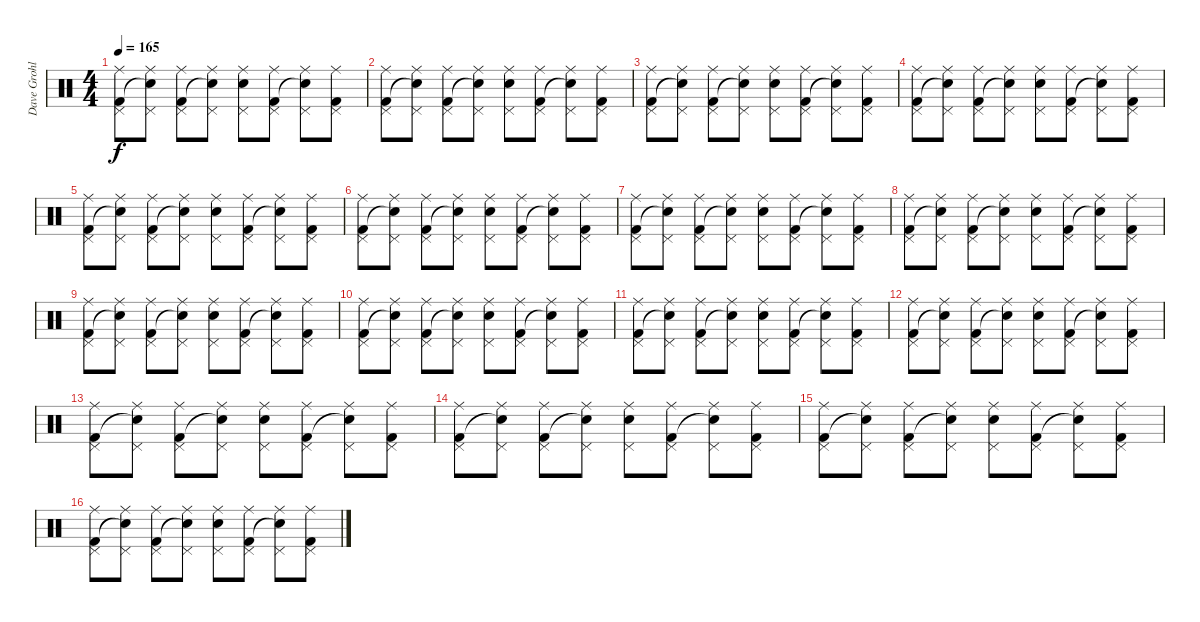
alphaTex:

\track ("Dave Grohl" "Dave Grohl") {instrument percussion}
\staff {score}
\articulation defaults
\ts (4 4)
\tempo 165
\clef neutral
\ks c
("Ride (middle)" "Pedal Hi-Hat (hit)" "Kick (hit) 2").8{dy f} ("Ride (middle)" "Pedal Hi-Hat (hit)" "Snare (hit)"{t}).8 ("Ride (middle)" "Pedal Hi-Hat (hit)" "Kick (hit) 2").8 ("Ride (middle)" "Pedal Hi-Hat (hit)" "Snare (hit)"{t}).8 ("Ride (middle)" "Pedal Hi-Hat (hit)" "Snare (hit) 2").8 ("Ride (middle)" "Pedal Hi-Hat (hit)" "Kick (hit) 2").8 ("Ride (middle)" "Pedal Hi-Hat (hit)" "Snare (hit)"{t}).8 ("Ride (middle)" "Pedal Hi-Hat (hit)" "Kick (hit) 2").8 |
("Ride (middle)" "Pedal Hi-Hat (hit)" "Kick (hit) 2").8 ("Ride (middle)" "Pedal Hi-Hat (hit)" "Snare (hit)"{t}).8 ("Ride (middle)" "Pedal Hi-Hat (hit)" "Kick (hit) 2").8 ("Ride (middle)" "Pedal Hi-Hat (hit)" "Snare (hit)"{t}).8 ("Ride (middle)" "Pedal Hi-Hat (hit)" "Snare (hit) 2").8 ("Ride (middle)" "Pedal Hi-Hat (hit)" "Kick (hit) 2").8 ("Ride (middle)" "Pedal Hi-Hat (hit)" "Snare (hit)"{t}).8 ("Ride (middle)" "Pedal Hi-Hat (hit)" "Kick (hit) 2").8 |
("Ride (middle)" "Pedal Hi-Hat (hit)" "Kick (hit) 2").8 ("Ride (middle)" "Pedal Hi-Hat (hit)" "Snare (hit)"{t}).8 ("Ride (middle)" "Pedal Hi-Hat (hit)" "Kick (hit) 2").8 ("Ride (middle)" "Pedal Hi-Hat (hit)" "Snare (hit)"{t}).8 ("Ride (middle)" "Pedal Hi-Hat (hit)" "Snare (hit) 2").8 ("Ride (middle)" "Pedal Hi-Hat (hit)" "Kick (hit) 2").8 ("Ride (middle)" "Pedal Hi-Hat (hit)" "Snare (hit)"{t}).8 ("Ride (middle)" "Pedal Hi-Hat (hit)" "Kick (hit) 2").8 |
("Ride (middle)" "Pedal Hi-Hat (hit)" "Kick (hit) 2").8 ("Ride (middle)" "Pedal Hi-Hat (hit)" "Snare (hit)"{t}).8 ("Ride (middle)" "Pedal Hi-Hat (hit)" "Kick (hit) 2").8 ("Ride (middle)" "Pedal Hi-Hat (hit)" "Snare (hit)"{t}).8 ("Ride (middle)" "Pedal Hi-Hat (hit)" "Snare (hit) 2").8 ("Ride (middle)" "Pedal Hi-Hat (hit)" "Kick (hit) 2").8 ("Ride (middle)" "Pedal Hi-Hat (hit)" "Snare (hit)"{t}).8 ("Ride (middle)" "Pedal Hi-Hat (hit)" "Kick (hit) 2").8 |
("Ride (middle)" "Pedal Hi-Hat (hit)" "Kick (hit) 2").8 ("Ride (middle)" "Pedal Hi-Hat (hit)" "Snare (hit)"{t}).8 ("Ride (middle)" "Pedal Hi-Hat (hit)" "Kick (hit) 2").8 ("Ride (middle)" "Pedal Hi-Hat (hit)" "Snare (hit)"{t}).8 ("Ride (middle)" "Pedal Hi-Hat (hit)" "Snare (hit) 2").8 ("Ride (middle)" "Pedal Hi-Hat (hit)" "Kick (hit) 2").8 ("Ride (middle)" "Pedal Hi-Hat (hit)" "Snare (hit)"{t}).8 ("Ride (middle)" "Pedal Hi-Hat (hit)" "Kick (hit) 2").8 |
("Ride (middle)" "Pedal Hi-Hat (hit)" "Kick (hit) 2").8 ("Ride (middle)" "Pedal Hi-Hat (hit)" "Snare (hit)"{t}).8 ("Ride (middle)" "Pedal Hi-Hat (hit)" "Kick (hit) 2").8 ("Ride (middle)" "Pedal Hi-Hat (hit)" "Snare (hit)"{t}).8 ("Ride (middle)" "Pedal Hi-Hat (hit)" "Snare (hit) 2").8 ("Ride (middle)" "Pedal Hi-Hat (hit)" "Kick (hit) 2").8 ("Ride (middle)" "Pedal Hi-Hat (hit)" "Snare (hit)"{t}).8 ("Ride (middle)" "Pedal Hi-Hat (hit)" "Kick (hit) 2").8 |
("Ride (middle)" "Pedal Hi-Hat (hit)" "Kick (hit) 2").8 ("Ride (middle)" "Pedal Hi-Hat (hit)" "Snare (hit)"{t}).8 ("Ride (middle)" "Pedal Hi-Hat (hit)" "Kick (hit) 2").8 ("Ride (middle)" "Pedal Hi-Hat (hit)" "Snare (hit)"{t}).8 ("Ride (middle)" "Pedal Hi-Hat (hit)" "Snare (hit) 2").8 ("Ride (middle)" "Pedal Hi-Hat (hit)" "Kick (hit) 2").8 ("Ride (middle)" "Pedal Hi-Hat (hit)" "Snare (hit)"{t}).8 ("Ride (middle)" "Pedal Hi-Hat (hit)" "Kick (hit) 2").8 |
("Ride (middle)" "Pedal Hi-Hat (hit)" "Kick (hit) 2").8 ("Ride (middle)" "Pedal Hi-Hat (hit)" "Snare (hit)"{t}).8 ("Ride (middle)" "Pedal Hi-Hat (hit)" "Kick (hit) 2").8 ("Ride (middle)" "Pedal Hi-Hat (hit)" "Snare (hit)"{t}).8 ("Ride (middle)" "Pedal Hi-Hat (hit)" "Snare (hit) 2").8 ("Ride (middle)" "Pedal Hi-Hat (hit)" "Kick (hit) 2").8 ("Ride (middle)" "Pedal Hi-Hat (hit)" "Snare (hit)"{t}).8 ("Ride (middle)" "Pedal Hi-Hat (hit)" "Kick (hit) 2").8 |
("Ride (middle)" "Pedal Hi-Hat (hit)" "Kick (hit) 2").8 ("Ride (middle)" "Pedal Hi-Hat (hit)" "Snare (hit)"{t}).8 ("Ride (middle)" "Pedal Hi-Hat (hit)" "Kick (hit) 2").8 ("Ride (middle)" "Pedal Hi-Hat (hit)" "Snare (hit)"{t}).8 ("Ride (middle)" "Pedal Hi-Hat (hit)" "Snare (hit) 2").8 ("Ride (middle)" "Pedal Hi-Hat (hit)" "Kick (hit) 2").8 ("Ride (middle)" "Pedal Hi-Hat (hit)" "Snare (hit)"{t}).8 ("Ride (middle)" "Pedal Hi-Hat (hit)" "Kick (hit) 2").8 |
("Ride (middle)" "Pedal Hi-Hat (hit)" "Kick (hit) 2").8 ("Ride (middle)" "Pedal Hi-Hat (hit)" "Snare (hit)"{t}).8 ("Ride (middle)" "Pedal Hi-Hat (hit)" "Kick (hit) 2").8 ("Ride (middle)" "Pedal Hi-Hat (hit)" "Snare (hit)"{t}).8 ("Ride (middle)" "Pedal Hi-Hat (hit)" "Snare (hit) 2").8 ("Ride (middle)" "Pedal Hi-Hat (hit)" "Kick (hit) 2").8 ("Ride (middle)" "Pedal Hi-Hat (hit)" "Snare (hit)"{t}).8 ("Ride (middle)" "Pedal Hi-Hat (hit)" "Kick (hit) 2").8 |
("Ride (middle)" "Pedal Hi-Hat (hit)" "Kick (hit) 2").8 ("Ride (middle)" "Pedal Hi-Hat (hit)" "Snare (hit)"{t}).8 ("Ride (middle)" "Pedal Hi-Hat (hit)" "Kick (hit) 2").8 ("Ride (middle)" "Pedal Hi-Hat (hit)" "Snare (hit)"{t}).8 ("Ride (middle)" "Pedal Hi-Hat (hit)" "Snare (hit) 2").8 ("Ride (middle)" "Pedal Hi-Hat (hit)" "Kick (hit) 2").8 ("Ride (middle)" "Pedal Hi-Hat (hit)" "Snare (hit)"{t}).8 ("Ride (middle)" "Pedal Hi-Hat (hit)" "Kick (hit) 2").8 |
("Ride (middle)" "Pedal Hi-Hat (hit)" "Kick (hit) 2").8 ("Ride (middle)" "Pedal Hi-Hat (hit)" "Snare (hit)"{t}).8 ("Ride (middle)" "Pedal Hi-Hat (hit)" "Kick (hit) 2").8 ("Ride (middle)" "Pedal Hi-Hat (hit)" "Snare (hit)"{t}).8 ("Ride (middle)" "Pedal Hi-Hat (hit)" "Snare (hit) 2").8 ("Ride (middle)" "Pedal Hi-Hat (hit)" "Kick (hit) 2").8 ("Ride (middle)" "Pedal Hi-Hat (hit)" "Snare (hit)"{t}).8 ("Ride (middle)" "Pedal Hi-Hat (hit)" "Kick (hit) 2").8 |
("Ride (middle)" "Pedal Hi-Hat (hit)" "Kick (hit) 2").8 ("Ride (middle)" "Pedal Hi-Hat (hit)" "Snare (hit)"{t}).8 ("Ride (middle)" "Pedal Hi-Hat (hit)" "Kick (hit) 2").8 ("Ride (middle)" "Pedal Hi-Hat (hit)" "Snare (hit)"{t}).8 ("Ride (middle)" "Pedal Hi-Hat (hit)" "Snare (hit) 2").8 ("Ride (middle)" "Pedal Hi-Hat (hit)" "Kick (hit) 2").8 ("Ride (middle)" "Pedal Hi-Hat (hit)" "Snare (hit)"{t}).8 ("Ride (middle)" "Pedal Hi-Hat (hit)" "Kick (hit) 2").8 |
("Ride (middle)" "Pedal Hi-Hat (hit)" "Kick (hit) 2").8 ("Ride (middle)" "Pedal Hi-Hat (hit)" "Snare (hit)"{t}).8 ("Ride (middle)" "Pedal Hi-Hat (hit)" "Kick (hit) 2").8 ("Ride (middle)" "Pedal Hi-Hat (hit)" "Snare (hit)"{t}).8 ("Ride (middle)" "Pedal Hi-Hat (hit)" "Snare (hit) 2").8 ("Ride (middle)" "Pedal Hi-Hat (hit)" "Kick (hit) 2").8 ("Ride (middle)" "Pedal Hi-Hat (hit)" "Snare (hit)"{t}).8 ("Ride (middle)" "Pedal Hi-Hat (hit)" "Kick (hit) 2").8 |
("Ride (middle)" "Pedal Hi-Hat (hit)" "Kick (hit) 2").8 ("Ride (middle)" "Pedal Hi-Hat (hit)" "Snare (hit)"{t}).8 ("Ride (middle)" "Pedal Hi-Hat (hit)" "Kick (hit) 2").8 ("Ride (middle)" "Pedal Hi-Hat (hit)" "Snare (hit)"{t}).8 ("Ride (middle)" "Pedal Hi-Hat (hit)" "Snare (hit) 2").8 ("Ride (middle)" "Pedal Hi-Hat (hit)" "Kick (hit) 2").8 ("Ride (middle)" "Pedal Hi-Hat (hit)" "Snare (hit)"{t}).8 ("Ride (middle)" "Pedal Hi-Hat (hit)" "Kick (hit) 2").8 |
("Ride (middle)" "Pedal Hi-Hat (hit)" "Kick (hit) 2").8 ("Ride (middle)" "Pedal Hi-Hat (hit)" "Snare (hit)"{t}).8 ("Ride (middle)" "Pedal Hi-Hat (hit)" "Kick (hit) 2").8 ("Ride (middle)" "Pedal Hi-Hat (hit)" "Snare (hit)"{t}).8 ("Ride (middle)" "Pedal Hi-Hat (hit)" "Snare (hit) 2").8 ("Ride (middle)" "Pedal Hi-Hat (hit)" "Kick (hit) 2").8 ("Ride (middle)" "Pedal Hi-Hat (hit)" "Snare (hit)"{t}).8 ("Ride (middle)" "Pedal Hi-Hat (hit)" "Kick (hit) 2").8
